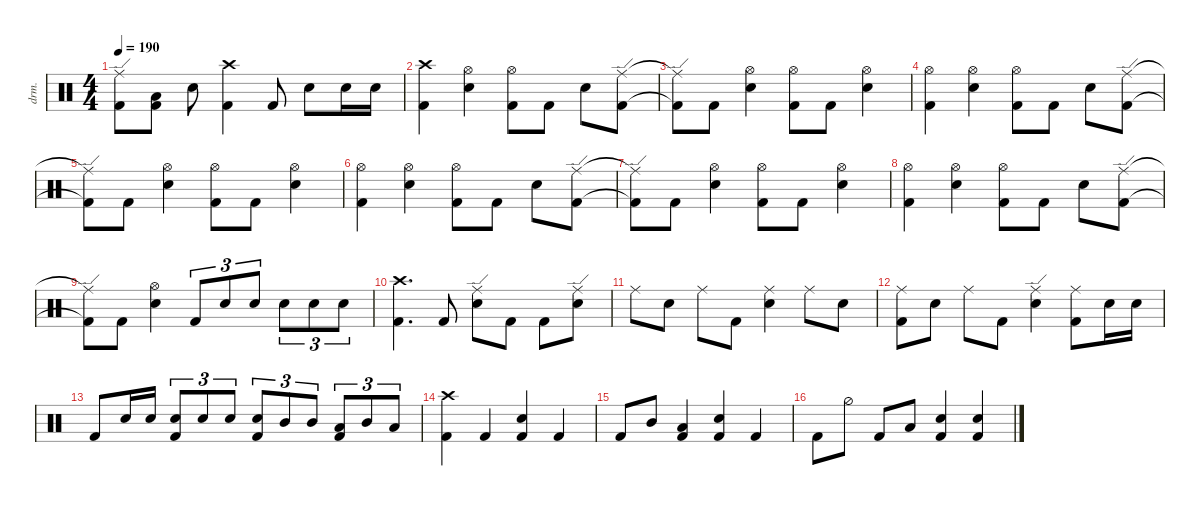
\defaultSystemsLayout 4
\hideDynamics
\bracketExtendMode nobrackets
\track ("Drumkit" "drm.") {instrument percussion}
\staff {score}
\articulation defaults
\ts (4 4)
\tempo 190
\clef neutral
\ks c
("Ride (edge)"{t} "Kick (hit) 2"{t}).8{dy mf} ("Kick (hit) 2" "Low Tom (hit)").8 "Snare (hit) 2".8 ("Kick (hit) 2" "Crash high (hit)").4 "Kick (hit) 2".8 "Snare (hit) 2".8 "Snare (hit) 2".16 "Snare (hit) 2".16 |
("Crash high (hit)" "Kick (hit) 2").4 ("Hi-Hat (open)" "Snare (hit) 2").4 ("Hi-Hat (open)" "Kick (hit) 2").8 "Kick (hit) 2".8 "Snare (hit) 2".8 ("Ride (edge)" "Kick (hit) 2").8 |
("Ride (edge)"{t} "Kick (hit) 2"{t}).8 "Kick (hit) 2".8 ("Hi-Hat (open)" "Snare (hit) 2").4 ("Hi-Hat (open)" "Kick (hit) 2").8 "Kick (hit) 2".8 ("Hi-Hat (open)" "Snare (hit) 2").4 |
("Kick (hit) 2" "Hi-Hat (open)").4 ("Hi-Hat (open)" "Snare (hit) 2").4 ("Hi-Hat (open)" "Kick (hit) 2").8 "Kick (hit) 2".8 "Snare (hit) 2".8 ("Ride (edge)" "Kick (hit) 2").8 |
("Ride (edge)"{t} "Kick (hit) 2"{t}).8 "Kick (hit) 2".8 ("Hi-Hat (open)" "Snare (hit) 2").4 ("Hi-Hat (open)" "Kick (hit) 2").8 "Kick (hit) 2".8 ("Hi-Hat (open)" "Snare (hit) 2").4 |
("Kick (hit) 2" "Hi-Hat (open)").4 ("Hi-Hat (open)" "Snare (hit) 2").4 ("Hi-Hat (open)" "Kick (hit) 2").8 "Kick (hit) 2".8 "Snare (hit) 2".8 ("Ride (edge)" "Kick (hit) 2").8 |
("Ride (edge)"{t} "Kick (hit) 2"{t}).8 "Kick (hit) 2".8 ("Hi-Hat (open)" "Snare (hit) 2").4 ("Hi-Hat (open)" "Kick (hit) 2").8 "Kick (hit) 2".8 ("Hi-Hat (open)" "Snare (hit) 2").4 |
("Kick (hit) 2" "Hi-Hat (open)").4 ("Hi-Hat (open)" "Snare (hit) 2").4 ("Hi-Hat (open)" "Kick (hit) 2").8 "Kick (hit) 2".8 "Snare (hit) 2".8 ("Ride (edge)" "Kick (hit) 2").8 |
("Ride (edge)"{t} "Kick (hit) 2"{t}).8 "Kick (hit) 2".8 ("Snare (hit) 2" "Hi-Hat (open)").4 "Kick (hit) 2".8{tu (3 2)} "Snare (hit) 2".8{tu (3 2)} "Snare (hit) 2".8{tu (3 2)} "Snare (hit) 2".8{tu (3 2)} "Snare (hit) 2".8{tu (3 2)} "Snare (hit) 2".8{tu (3 2)} |
("Kick (hit) 2" "Crash high (hit)").4{d} "Kick (hit) 2".8 ("Snare (hit) 2" "Ride (edge)").8 "Kick (hit) 2".8 "Kick (hit) 2".8 ("Snare (hit) 2" "Ride (edge)").8 |
"Ride (middle)".8 "Snare (hit) 2".8 "Ride (middle)".8 "Kick (hit) 2".8 ("Snare (hit) 2" "Ride (middle)").4 "Ride (middle)".8 "Snare (hit) 2".8 |
("Ride (middle)" "Kick (hit) 2").8 "Snare (hit) 2".8 "Ride (middle)".8 "Kick (hit) 2".8 ("Ride (edge)" "Snare (hit) 2").4 ("Ride (middle)" "Kick (hit) 2").8 "Snare (hit) 2".16 "Snare (hit) 2".16 |
"Kick (hit) 2".8 "Snare (hit) 2".16 "Snare (hit) 2".16 ("Kick (hit) 2" "Snare (hit) 2").8{tu (3 2)} "Snare (hit) 2".8{tu (3 2)} "Snare (hit) 2".8{tu (3 2)} ("Kick (hit) 2" "Snare (hit) 2").8{tu (3 2)} "Mid Tom (hit)".8{tu (3 2)} "Mid Tom (hit)".8{tu (3 2)} ("Kick (hit) 2" "Low Tom (hit)").8{tu (3 2)} "Mid Tom (hit)".8{tu (3 2)} "Low Tom (hit)".8{tu (3 2)} |
("Kick (hit) 2" "Crash high (hit)").4 "Kick (hit) 2".4 ("Kick (hit) 2" "Snare (hit) 2").4 "Kick (hit) 2".4 |
"Kick (hit) 2".8 "Mid Tom (hit)".8 ("Kick (hit) 2" "Low Tom (hit)").4 ("Kick (hit) 2" "Snare (hit) 2").4 "Kick (hit) 2".4 |
"Kick (hit) 2".8 "Hi-Hat (half)".8 "Kick (hit) 2".8 "Low Tom (hit)".8 ("Kick (hit) 2" "Snare (hit) 2").4 ("Kick (hit) 2" "Snare (hit) 2").4
